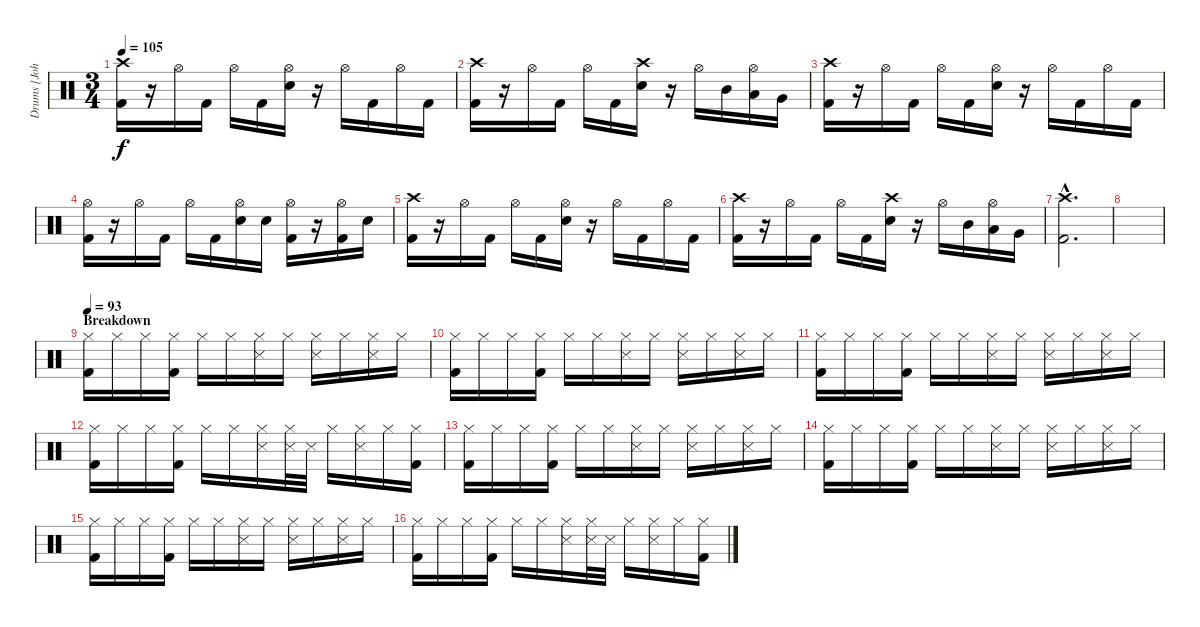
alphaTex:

\track ("Drums [John Otto]" "Drums [Joh") {instrument percussion}
\staff {score}
\articulation defaults
\ts (3 4)
\tempo 105
\clef neutral
\ks c
("Crash high (hit)" "Kick (hit) 2").16{dy f} r.16 "Hi-Hat (open)".16 "Kick (hit) 2".16 "Hi-Hat (open)".16 "Kick (hit) 2".16 ("Hi-Hat (open)" "Electric Snare (hit)").16 r.16 "Hi-Hat (open)".16 "Kick (hit) 2".16 "Hi-Hat (open)".16 "Kick (hit) 2".16 |
("Crash high (hit)" "Kick (hit) 2").16 r.16 "Hi-Hat (open)".16 "Kick (hit) 2".16 "Hi-Hat (open)".16 "Kick (hit) 2".16 ("Crash high (hit)" "Electric Snare (hit)").16 r.16 "Hi-Hat (open)".16 "Mid Tom (hit)".16 ("Hi-Hat (open)" "Low Tom (hit)").16 "Very Low Tom (hit)".16 |
("Crash high (hit)" "Kick (hit) 2").16 r.16 "Hi-Hat (open)".16 "Kick (hit) 2".16 "Hi-Hat (open)".16 "Kick (hit) 2".16 ("Hi-Hat (open)" "Electric Snare (hit)").16 r.16 "Hi-Hat (open)".16 "Kick (hit) 2".16 "Hi-Hat (open)".16 "Kick (hit) 2".16 |
("Hi-Hat (open)" "Kick (hit) 2").16 r.16 "Hi-Hat (open)".16 "Kick (hit) 2".16 "Hi-Hat (open)".16 "Kick (hit) 2".16 ("Hi-Hat (open)" "Electric Snare (hit)").16 "Electric Snare (hit)".16 ("Hi-Hat (open)" "Kick (hit) 2").16 r.16 ("Hi-Hat (open)" "Kick (hit) 2").16 "Electric Snare (hit)".16 |
("Crash high (hit)" "Kick (hit) 2").16 r.16 "Hi-Hat (open)".16 "Kick (hit) 2".16 "Hi-Hat (open)".16 "Kick (hit) 2".16 ("Hi-Hat (open)" "Electric Snare (hit)").16 r.16 "Hi-Hat (open)".16 "Kick (hit) 2".16 "Hi-Hat (open)".16 "Kick (hit) 2".16 |
("Crash high (hit)" "Kick (hit) 2").16 r.16 "Hi-Hat (open)".16 "Kick (hit) 2".16 "Hi-Hat (open)".16 "Kick (hit) 2".16 ("Crash high (hit)" "Electric Snare (hit)").16 r.16 "Hi-Hat (open)".16 "Mid Tom (hit)".16 ("Hi-Hat (open)" "Low Tom (hit)").16 "Very Low Tom (hit)".16 |
("Crash high (hit)"{hac} "Kick (hit) 2"{hac}).2{d} |
|
\section ("" "Breakdown")
\tempo 93
("Hi-Hat (closed)" "Kick (hit) 2").16 "Hi-Hat (closed)".16 "Hi-Hat (closed)".16 ("Hi-Hat (closed)" "Kick (hit) 2").16 "Hi-Hat (closed)".16 "Hi-Hat (closed)".16 ("Hi-Hat (closed)" "Snare (side stick) 3").16 "Hi-Hat (closed)".16 ("Hi-Hat (closed)" "Snare (side stick) 3").16 "Hi-Hat (closed)".16 ("Hi-Hat (closed)" "Snare (side stick) 3").16 "Hi-Hat (closed)".16 |
("Hi-Hat (closed)" "Kick (hit) 2").16 "Hi-Hat (closed)".16 "Hi-Hat (closed)".16 ("Hi-Hat (closed)" "Kick (hit) 2").16 "Hi-Hat (closed)".16 "Hi-Hat (closed)".16 ("Hi-Hat (closed)" "Snare (side stick) 3").16 "Hi-Hat (closed)".16 ("Hi-Hat (closed)" "Snare (side stick) 3").16 "Hi-Hat (closed)".16 ("Hi-Hat (closed)" "Snare (side stick) 3").16 "Hi-Hat (closed)".16 |
("Hi-Hat (closed)" "Kick (hit) 2").16 "Hi-Hat (closed)".16 "Hi-Hat (closed)".16 ("Hi-Hat (closed)" "Kick (hit) 2").16 "Hi-Hat (closed)".16 "Hi-Hat (closed)".16 ("Hi-Hat (closed)" "Snare (side stick) 3").16 "Hi-Hat (closed)".16 ("Hi-Hat (closed)" "Snare (side stick) 3").16 "Hi-Hat (closed)".16 ("Hi-Hat (closed)" "Snare (side stick) 3").16 "Hi-Hat (closed)".16 |
("Hi-Hat (closed)" "Kick (hit) 2").16 "Hi-Hat (closed)".16 "Hi-Hat (closed)".16 ("Hi-Hat (closed)" "Kick (hit) 2").16 "Hi-Hat (closed)".16 "Hi-Hat (closed)".16 ("Hi-Hat (closed)" "Snare (side stick) 3").16 ("Hi-Hat (closed)" "Snare (side stick) 3").32 "Snare (side stick) 3".32 "Hi-Hat (closed)".16 ("Hi-Hat (closed)" "Snare (side stick) 3").16 "Hi-Hat (closed)".16 ("Hi-Hat (closed)" "Kick (hit) 2").16 |
("Hi-Hat (closed)" "Kick (hit) 2").16 "Hi-Hat (closed)".16 "Hi-Hat (closed)".16 ("Hi-Hat (closed)" "Kick (hit) 2").16 "Hi-Hat (closed)".16 "Hi-Hat (closed)".16 ("Hi-Hat (closed)" "Snare (side stick) 3").16 "Hi-Hat (closed)".16 ("Hi-Hat (closed)" "Snare (side stick) 3").16 "Hi-Hat (closed)".16 ("Hi-Hat (closed)" "Snare (side stick) 3").16 "Hi-Hat (closed)".16 |
("Hi-Hat (closed)" "Kick (hit) 2").16 "Hi-Hat (closed)".16 "Hi-Hat (closed)".16 ("Hi-Hat (closed)" "Kick (hit) 2").16 "Hi-Hat (closed)".16 "Hi-Hat (closed)".16 ("Hi-Hat (closed)" "Snare (side stick) 3").16 "Hi-Hat (closed)".16 ("Hi-Hat (closed)" "Snare (side stick) 3").16 "Hi-Hat (closed)".16 ("Hi-Hat (closed)" "Snare (side stick) 3").16 "Hi-Hat (closed)".16 |
("Hi-Hat (closed)" "Kick (hit) 2").16 "Hi-Hat (closed)".16 "Hi-Hat (closed)".16 ("Hi-Hat (closed)" "Kick (hit) 2").16 "Hi-Hat (closed)".16 "Hi-Hat (closed)".16 ("Hi-Hat (closed)" "Snare (side stick) 3").16 "Hi-Hat (closed)".16 ("Hi-Hat (closed)" "Snare (side stick) 3").16 "Hi-Hat (closed)".16 ("Hi-Hat (closed)" "Snare (side stick) 3").16 "Hi-Hat (closed)".16 |
("Hi-Hat (closed)" "Kick (hit) 2").16 "Hi-Hat (closed)".16 "Hi-Hat (closed)".16 ("Hi-Hat (closed)" "Kick (hit) 2").16 "Hi-Hat (closed)".16 "Hi-Hat (closed)".16 ("Hi-Hat (closed)" "Snare (side stick) 3").16 ("Hi-Hat (closed)" "Snare (side stick) 3").32 "Snare (side stick) 3".32 "Hi-Hat (closed)".16 ("Hi-Hat (closed)" "Snare (side stick) 3").16 "Hi-Hat (closed)".16 ("Hi-Hat (closed)" "Kick (hit) 2").16
